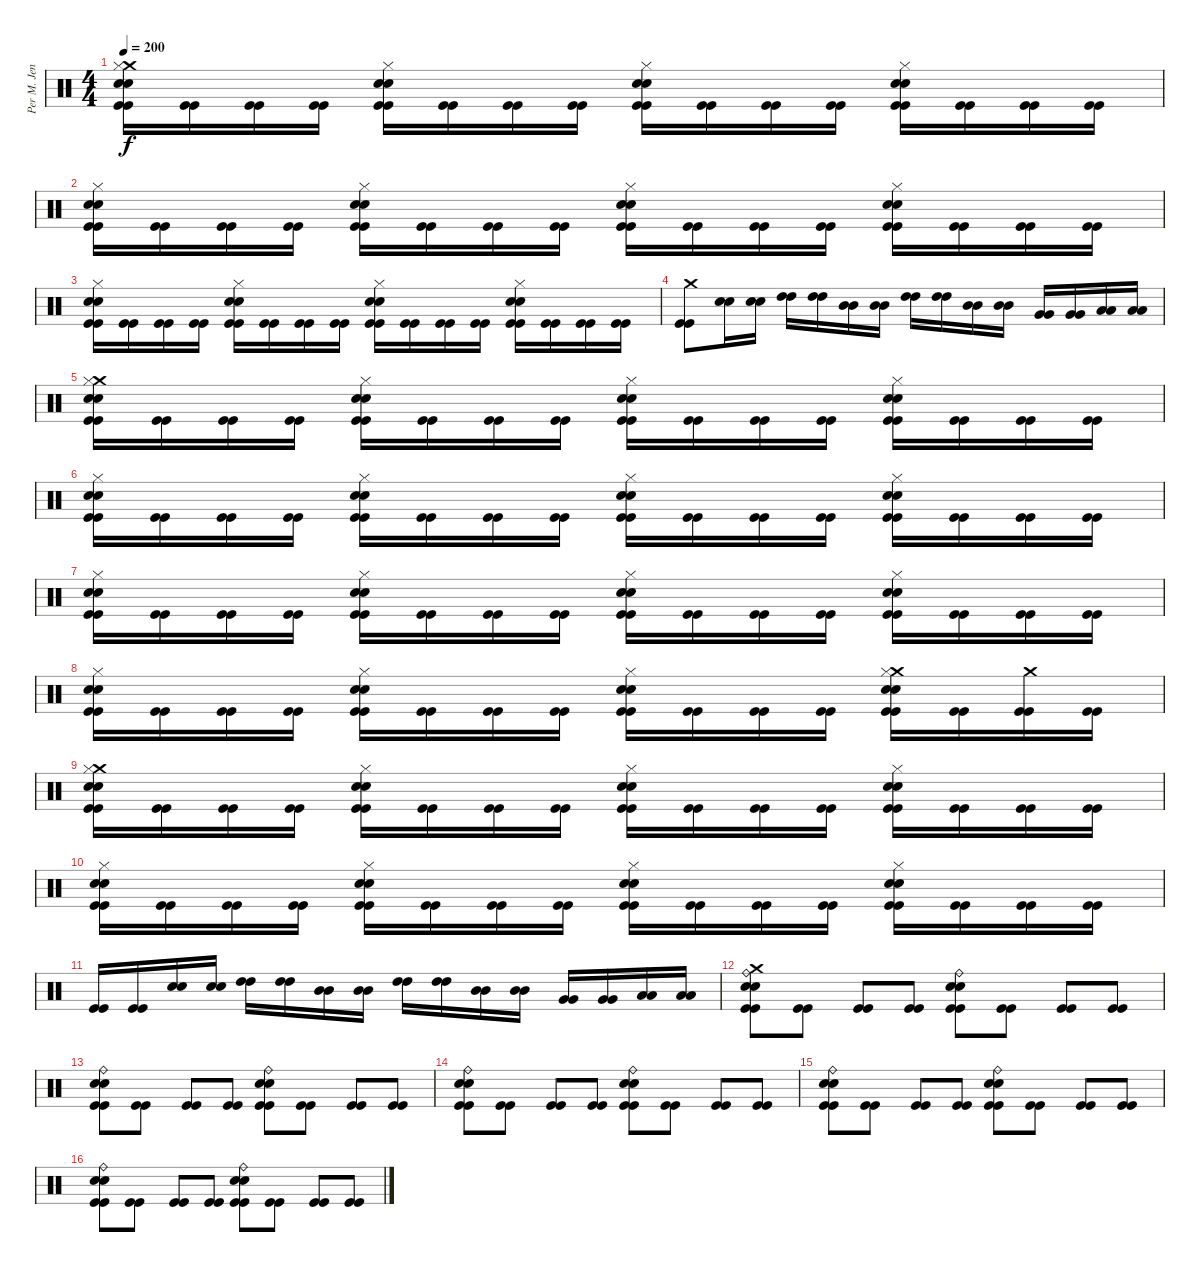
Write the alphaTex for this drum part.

\track ("Per M. Jensen" "Per M. Jen") {instrument percussion}
\staff {score}
\articulation defaults
\ts (4 4)
\tempo 200
\clef neutral
\ks c
("Crash medium (hit)" "Hi-Hat (closed)" "Snare (hit) 2" "Snare (hit) 2" "Kick (hit)" "Kick (hit)").16{dy f} ("Kick (hit)" "Kick (hit)").16 ("Kick (hit)" "Kick (hit)").16 ("Kick (hit)" "Kick (hit)").16 ("Hi-Hat (closed)" "Snare (hit) 2" "Snare (hit) 2" "Kick (hit)" "Kick (hit)").16 ("Kick (hit)" "Kick (hit)").16 ("Kick (hit)" "Kick (hit)").16 ("Kick (hit)" "Kick (hit)").16 ("Hi-Hat (closed)" "Snare (hit) 2" "Snare (hit) 2" "Kick (hit)" "Kick (hit)").16 ("Kick (hit)" "Kick (hit)").16 ("Kick (hit)" "Kick (hit)").16 ("Kick (hit)" "Kick (hit)").16 ("Hi-Hat (closed)" "Snare (hit) 2" "Snare (hit) 2" "Kick (hit)" "Kick (hit)").16 ("Kick (hit)" "Kick (hit)").16 ("Kick (hit)" "Kick (hit)").16 ("Kick (hit)" "Kick (hit)").16 |
("Hi-Hat (closed)" "Snare (hit) 2" "Snare (hit) 2" "Kick (hit)" "Kick (hit)").16 ("Kick (hit)" "Kick (hit)").16 ("Kick (hit)" "Kick (hit)").16 ("Kick (hit)" "Kick (hit)").16 ("Hi-Hat (closed)" "Snare (hit) 2" "Snare (hit) 2" "Kick (hit)" "Kick (hit)").16 ("Kick (hit)" "Kick (hit)").16 ("Kick (hit)" "Kick (hit)").16 ("Kick (hit)" "Kick (hit)").16 ("Hi-Hat (closed)" "Snare (hit) 2" "Snare (hit) 2" "Kick (hit)" "Kick (hit)").16 ("Kick (hit)" "Kick (hit)").16 ("Kick (hit)" "Kick (hit)").16 ("Kick (hit)" "Kick (hit)").16 ("Hi-Hat (closed)" "Snare (hit) 2" "Snare (hit) 2" "Kick (hit)" "Kick (hit)").16 ("Kick (hit)" "Kick (hit)").16 ("Kick (hit)" "Kick (hit)").16 ("Kick (hit)" "Kick (hit)").16 |
("Hi-Hat (closed)" "Snare (hit) 2" "Snare (hit) 2" "Kick (hit)" "Kick (hit)").16 ("Kick (hit)" "Kick (hit)").16 ("Kick (hit)" "Kick (hit)").16 ("Kick (hit)" "Kick (hit)").16 ("Hi-Hat (closed)" "Snare (hit) 2" "Snare (hit) 2" "Kick (hit)" "Kick (hit)").16 ("Kick (hit)" "Kick (hit)").16 ("Kick (hit)" "Kick (hit)").16 ("Kick (hit)" "Kick (hit)").16 ("Hi-Hat (closed)" "Snare (hit) 2" "Snare (hit) 2" "Kick (hit)" "Kick (hit)").16 ("Kick (hit)" "Kick (hit)").16 ("Kick (hit)" "Kick (hit)").16 ("Kick (hit)" "Kick (hit)").16 ("Hi-Hat (closed)" "Snare (hit) 2" "Snare (hit) 2" "Kick (hit)" "Kick (hit)").16 ("Kick (hit)" "Kick (hit)").16 ("Kick (hit)" "Kick (hit)").16 ("Kick (hit)" "Kick (hit)").16 |
("Crash medium (hit)" "Kick (hit)" "Kick (hit)").8 ("Snare (hit) 2" "Snare (hit) 2").16 ("Snare (hit) 2" "Snare (hit) 2").16 ("High Tom (hit)" "High Tom (hit)").16 ("High Tom (hit)" "High Tom (hit)").16 ("Mid Tom (hit)" "Mid Tom (hit)").16 ("Mid Tom (hit)" "Mid Tom (hit)").16 ("High Tom (hit)" "High Tom (hit)").16 ("High Tom (hit)" "High Tom (hit)").16 ("Mid Tom (hit)" "Mid Tom (hit)").16 ("Mid Tom (hit)" "Mid Tom (hit)").16 ("Very Low Tom (hit)" "Very Low Tom (hit)").16 ("Very Low Tom (hit)" "Very Low Tom (hit)").16 ("Low Floor Tom (hit)" "Low Floor Tom (hit)").16 ("Low Floor Tom (hit)" "Low Floor Tom (hit)").16 |
("Crash medium (hit)" "Hi-Hat (closed)" "Snare (hit) 2" "Snare (hit) 2" "Kick (hit)" "Kick (hit)").16 ("Kick (hit)" "Kick (hit)").16 ("Kick (hit)" "Kick (hit)").16 ("Kick (hit)" "Kick (hit)").16 ("Hi-Hat (closed)" "Snare (hit) 2" "Snare (hit) 2" "Kick (hit)" "Kick (hit)").16 ("Kick (hit)" "Kick (hit)").16 ("Kick (hit)" "Kick (hit)").16 ("Kick (hit)" "Kick (hit)").16 ("Hi-Hat (closed)" "Snare (hit) 2" "Snare (hit) 2" "Kick (hit)" "Kick (hit)").16 ("Kick (hit)" "Kick (hit)").16 ("Kick (hit)" "Kick (hit)").16 ("Kick (hit)" "Kick (hit)").16 ("Hi-Hat (closed)" "Snare (hit) 2" "Snare (hit) 2" "Kick (hit)" "Kick (hit)").16 ("Kick (hit)" "Kick (hit)").16 ("Kick (hit)" "Kick (hit)").16 ("Kick (hit)" "Kick (hit)").16 |
("Hi-Hat (closed)" "Snare (hit) 2" "Snare (hit) 2" "Kick (hit)" "Kick (hit)").16 ("Kick (hit)" "Kick (hit)").16 ("Kick (hit)" "Kick (hit)").16 ("Kick (hit)" "Kick (hit)").16 ("Hi-Hat (closed)" "Snare (hit) 2" "Snare (hit) 2" "Kick (hit)" "Kick (hit)").16 ("Kick (hit)" "Kick (hit)").16 ("Kick (hit)" "Kick (hit)").16 ("Kick (hit)" "Kick (hit)").16 ("Hi-Hat (closed)" "Snare (hit) 2" "Snare (hit) 2" "Kick (hit)" "Kick (hit)").16 ("Kick (hit)" "Kick (hit)").16 ("Kick (hit)" "Kick (hit)").16 ("Kick (hit)" "Kick (hit)").16 ("Hi-Hat (closed)" "Snare (hit) 2" "Snare (hit) 2" "Kick (hit)" "Kick (hit)").16 ("Kick (hit)" "Kick (hit)").16 ("Kick (hit)" "Kick (hit)").16 ("Kick (hit)" "Kick (hit)").16 |
("Hi-Hat (closed)" "Snare (hit) 2" "Snare (hit) 2" "Kick (hit)" "Kick (hit)").16 ("Kick (hit)" "Kick (hit)").16 ("Kick (hit)" "Kick (hit)").16 ("Kick (hit)" "Kick (hit)").16 ("Hi-Hat (closed)" "Snare (hit) 2" "Snare (hit) 2" "Kick (hit)" "Kick (hit)").16 ("Kick (hit)" "Kick (hit)").16 ("Kick (hit)" "Kick (hit)").16 ("Kick (hit)" "Kick (hit)").16 ("Hi-Hat (closed)" "Snare (hit) 2" "Snare (hit) 2" "Kick (hit)" "Kick (hit)").16 ("Kick (hit)" "Kick (hit)").16 ("Kick (hit)" "Kick (hit)").16 ("Kick (hit)" "Kick (hit)").16 ("Hi-Hat (closed)" "Snare (hit) 2" "Snare (hit) 2" "Kick (hit)" "Kick (hit)").16 ("Kick (hit)" "Kick (hit)").16 ("Kick (hit)" "Kick (hit)").16 ("Kick (hit)" "Kick (hit)").16 |
("Hi-Hat (closed)" "Snare (hit) 2" "Snare (hit) 2" "Kick (hit)" "Kick (hit)").16 ("Kick (hit)" "Kick (hit)").16 ("Kick (hit)" "Kick (hit)").16 ("Kick (hit)" "Kick (hit)").16 ("Hi-Hat (closed)" "Snare (hit) 2" "Snare (hit) 2" "Kick (hit)" "Kick (hit)").16 ("Kick (hit)" "Kick (hit)").16 ("Kick (hit)" "Kick (hit)").16 ("Kick (hit)" "Kick (hit)").16 ("Hi-Hat (closed)" "Snare (hit) 2" "Snare (hit) 2" "Kick (hit)" "Kick (hit)").16 ("Kick (hit)" "Kick (hit)").16 ("Kick (hit)" "Kick (hit)").16 ("Kick (hit)" "Kick (hit)").16 ("Crash medium (hit)" "Hi-Hat (closed)" "Snare (hit) 2" "Snare (hit) 2" "Kick (hit)" "Kick (hit)").16 ("Kick (hit)" "Kick (hit)").16 ("Crash medium (hit)" "Kick (hit)" "Kick (hit)").16 ("Kick (hit)" "Kick (hit)").16 |
("Crash medium (hit)" "Hi-Hat (closed)" "Snare (hit) 2" "Snare (hit) 2" "Kick (hit)" "Kick (hit)").16 ("Kick (hit)" "Kick (hit)").16 ("Kick (hit)" "Kick (hit)").16 ("Kick (hit)" "Kick (hit)").16 ("Hi-Hat (closed)" "Snare (hit) 2" "Snare (hit) 2" "Kick (hit)" "Kick (hit)").16 ("Kick (hit)" "Kick (hit)").16 ("Kick (hit)" "Kick (hit)").16 ("Kick (hit)" "Kick (hit)").16 ("Hi-Hat (closed)" "Snare (hit) 2" "Snare (hit) 2" "Kick (hit)" "Kick (hit)").16 ("Kick (hit)" "Kick (hit)").16 ("Kick (hit)" "Kick (hit)").16 ("Kick (hit)" "Kick (hit)").16 ("Hi-Hat (closed)" "Snare (hit) 2" "Snare (hit) 2" "Kick (hit)" "Kick (hit)").16 ("Kick (hit)" "Kick (hit)").16 ("Kick (hit)" "Kick (hit)").16 ("Kick (hit)" "Kick (hit)").16 |
("Hi-Hat (closed)" "Snare (hit) 2" "Snare (hit) 2" "Kick (hit)" "Kick (hit)").16 ("Kick (hit)" "Kick (hit)").16 ("Kick (hit)" "Kick (hit)").16 ("Kick (hit)" "Kick (hit)").16 ("Hi-Hat (closed)" "Snare (hit) 2" "Snare (hit) 2" "Kick (hit)" "Kick (hit)").16 ("Kick (hit)" "Kick (hit)").16 ("Kick (hit)" "Kick (hit)").16 ("Kick (hit)" "Kick (hit)").16 ("Hi-Hat (closed)" "Snare (hit) 2" "Snare (hit) 2" "Kick (hit)" "Kick (hit)").16 ("Kick (hit)" "Kick (hit)").16 ("Kick (hit)" "Kick (hit)").16 ("Kick (hit)" "Kick (hit)").16 ("Hi-Hat (closed)" "Snare (hit) 2" "Snare (hit) 2" "Kick (hit)" "Kick (hit)").16 ("Kick (hit)" "Kick (hit)").16 ("Kick (hit)" "Kick (hit)").16 ("Kick (hit)" "Kick (hit)").16 |
("Kick (hit)" "Kick (hit)").16 ("Kick (hit)" "Kick (hit)").16 ("Snare (hit) 2" "Snare (hit) 2").16 ("Snare (hit) 2" "Snare (hit) 2").16 ("High Tom (hit)" "High Tom (hit)").16 ("High Tom (hit)" "High Tom (hit)").16 ("Mid Tom (hit)" "Mid Tom (hit)").16 ("Mid Tom (hit)" "Mid Tom (hit)").16 ("High Tom (hit)" "High Tom (hit)").16 ("High Tom (hit)" "High Tom (hit)").16 ("Mid Tom (hit)" "Mid Tom (hit)").16 ("Mid Tom (hit)" "Mid Tom (hit)").16 ("Very Low Tom (hit)" "Very Low Tom (hit)").16 ("Very Low Tom (hit)" "Very Low Tom (hit)").16 ("Low Floor Tom (hit)" "Low Floor Tom (hit)").16 ("Low Floor Tom (hit)" "Low Floor Tom (hit)").16 |
("Crash medium (hit)" "Ride (bell)" "Snare (hit) 2" "Snare (hit) 2" "Kick (hit)" "Kick (hit)").8 ("Kick (hit)" "Kick (hit)").8 ("Kick (hit)" "Kick (hit)").8 ("Kick (hit)" "Kick (hit)").8 ("Ride (bell)" "Snare (hit) 2" "Snare (hit) 2" "Kick (hit)" "Kick (hit)").8 ("Kick (hit)" "Kick (hit)").8 ("Kick (hit)" "Kick (hit)").8 ("Kick (hit)" "Kick (hit)").8 |
("Ride (bell)" "Snare (hit) 2" "Snare (hit) 2" "Kick (hit)" "Kick (hit)").8 ("Kick (hit)" "Kick (hit)").8 ("Kick (hit)" "Kick (hit)").8 ("Kick (hit)" "Kick (hit)").8 ("Ride (bell)" "Snare (hit) 2" "Snare (hit) 2" "Kick (hit)" "Kick (hit)").8 ("Kick (hit)" "Kick (hit)").8 ("Kick (hit)" "Kick (hit)").8 ("Kick (hit)" "Kick (hit)").8 |
("Ride (bell)" "Snare (hit) 2" "Snare (hit) 2" "Kick (hit)" "Kick (hit)").8 ("Kick (hit)" "Kick (hit)").8 ("Kick (hit)" "Kick (hit)").8 ("Kick (hit)" "Kick (hit)").8 ("Ride (bell)" "Snare (hit) 2" "Snare (hit) 2" "Kick (hit)" "Kick (hit)").8 ("Kick (hit)" "Kick (hit)").8 ("Kick (hit)" "Kick (hit)").8 ("Kick (hit)" "Kick (hit)").8 |
("Ride (bell)" "Snare (hit) 2" "Snare (hit) 2" "Kick (hit)" "Kick (hit)").8 ("Kick (hit)" "Kick (hit)").8 ("Kick (hit)" "Kick (hit)").8 ("Kick (hit)" "Kick (hit)").8 ("Ride (bell)" "Snare (hit) 2" "Snare (hit) 2" "Kick (hit)" "Kick (hit)").8 ("Kick (hit)" "Kick (hit)").8 ("Kick (hit)" "Kick (hit)").8 ("Kick (hit)" "Kick (hit)").8 |
("Ride (bell)" "Snare (hit) 2" "Snare (hit) 2" "Kick (hit)" "Kick (hit)").8 ("Kick (hit)" "Kick (hit)").8 ("Kick (hit)" "Kick (hit)").8 ("Kick (hit)" "Kick (hit)").8 ("Ride (bell)" "Snare (hit) 2" "Snare (hit) 2" "Kick (hit)" "Kick (hit)").8 ("Kick (hit)" "Kick (hit)").8 ("Kick (hit)" "Kick (hit)").8 ("Kick (hit)" "Kick (hit)").8
